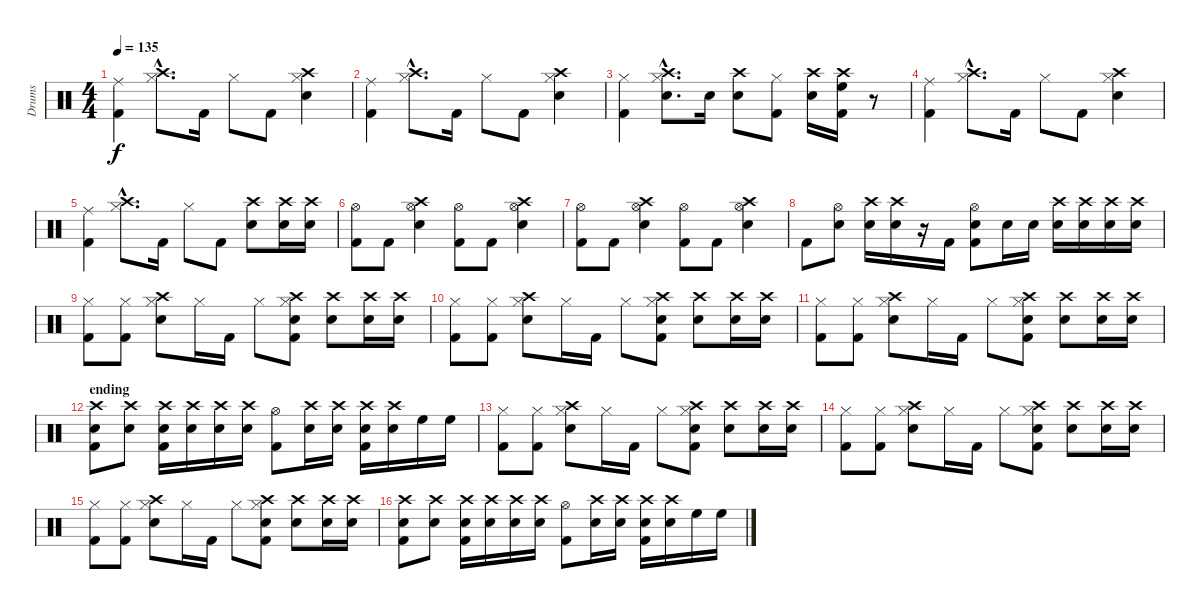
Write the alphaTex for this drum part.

\track ("Drums" "Drums") {instrument percussion}
\staff {score}
\articulation defaults
\ts (4 4)
\tempo 135
\clef neutral
\ks c
("Ride (middle)" "Kick (hit) 2").4{dy f} ("Crash high (hit)"{hac} "Hi-Hat (closed)"{hac}).8{d} "Kick (hit) 2".16 "Hi-Hat (closed)".8 "Kick (hit) 2".8 ("Crash high (hit)" "Hi-Hat (closed)" "Snare (hit) 2").4 |
("Ride (middle)" "Kick (hit) 2").4 ("Crash high (hit)"{hac} "Hi-Hat (closed)"{hac}).8{d} "Kick (hit) 2".16 "Hi-Hat (closed)".8 "Kick (hit) 2".8 ("Crash high (hit)" "Hi-Hat (closed)" "Snare (hit) 2").4 |
("Hi-Hat (closed)" "Kick (hit) 2").4 ("Crash high (hit)"{hac} "Hi-Hat (closed)"{hac} "Snare (hit) 2"{hac}).8{d} "Snare (hit) 2".16 ("Crash high (hit)" "Snare (hit) 2").8 ("Hi-Hat (closed)" "Kick (hit) 2").8 ("Crash high (hit)" "Snare (hit) 2").16 ("Crash high (hit)" "High Floor Tom (hit)" "Kick (hit) 2").16 r.8 |
("Ride (middle)" "Kick (hit) 2").4 ("Crash high (hit)"{hac} "Hi-Hat (closed)"{hac}).8{d} "Kick (hit) 2".16 "Hi-Hat (closed)".8 "Kick (hit) 2".8 ("Crash high (hit)" "Hi-Hat (closed)" "Snare (hit) 2").4 |
("Ride (middle)" "Kick (hit) 2").4 ("Crash high (hit)"{hac} "Hi-Hat (closed)"{hac}).8{d} "Kick (hit) 2".16 "Hi-Hat (closed)".8 "Kick (hit) 2".8 ("Crash high (hit)" "Snare (hit) 2").8 ("Crash high (hit)" "Snare (hit) 2").16 ("Crash high (hit)" "Snare (hit) 2").16 |
("Hi-Hat (open)" "Kick (hit) 2").8 "Kick (hit) 2".8 ("Crash high (hit)" "Hi-Hat (open)" "Snare (hit) 2").4 ("Hi-Hat (open)" "Kick (hit) 2").8 "Kick (hit) 2".8 ("Crash high (hit)" "Hi-Hat (open)" "Snare (hit) 2").4 |
("Hi-Hat (open)" "Kick (hit) 2").8 "Kick (hit) 2".8 ("Crash high (hit)" "Hi-Hat (open)" "Snare (hit) 2").4 ("Hi-Hat (open)" "Kick (hit) 2").8 "Kick (hit) 2".8 ("Crash high (hit)" "Hi-Hat (open)" "Snare (hit) 2").4 |
"Kick (hit) 2".8 ("Hi-Hat (open)" "Snare (hit) 2").8 ("Crash high (hit)" "Snare (hit) 2").16 ("Crash high (hit)" "Snare (hit) 2").16 r.16 "Kick (hit) 2".16 ("Hi-Hat (open)" "Snare (hit) 2" "Kick (hit) 2").8 "Snare (hit) 2".16 "Snare (hit) 2".16 ("Crash high (hit)" "Snare (hit) 2").16 ("Crash high (hit)" "Snare (hit) 2").16 ("Crash high (hit)" "Snare (hit) 2").16 ("Crash high (hit)" "Snare (hit) 2").16 |
("Hi-Hat (closed)" "Kick (hit) 2").8 ("Hi-Hat (closed)" "Kick (hit) 2").8 ("Crash high (hit)" "Hi-Hat (closed)" "Snare (hit) 2").8 "Hi-Hat (closed)".16 "Kick (hit) 2".16 "Hi-Hat (closed)".8 ("Crash high (hit)" "Hi-Hat (closed)" "Snare (hit) 2" "Kick (hit) 2").8 ("Crash high (hit)" "Snare (hit) 2").8 ("Crash high (hit)" "Snare (hit) 2").16 ("Crash high (hit)" "Snare (hit) 2").16 |
("Hi-Hat (closed)" "Kick (hit) 2").8 ("Hi-Hat (closed)" "Kick (hit) 2").8 ("Crash high (hit)" "Hi-Hat (closed)" "Snare (hit) 2").8 "Hi-Hat (closed)".16 "Kick (hit) 2".16 "Hi-Hat (closed)".8 ("Crash high (hit)" "Hi-Hat (closed)" "Snare (hit) 2" "Kick (hit) 2").8 ("Crash high (hit)" "Snare (hit) 2").8 ("Crash high (hit)" "Snare (hit) 2").16 ("Crash high (hit)" "Snare (hit) 2").16 |
("Hi-Hat (closed)" "Kick (hit) 2").8 ("Hi-Hat (closed)" "Kick (hit) 2").8 ("Crash high (hit)" "Hi-Hat (closed)" "Snare (hit) 2").8 "Hi-Hat (closed)".16 "Kick (hit) 2".16 "Hi-Hat (closed)".8 ("Crash high (hit)" "Hi-Hat (closed)" "Snare (hit) 2" "Kick (hit) 2").8 ("Crash high (hit)" "Snare (hit) 2").8 ("Crash high (hit)" "Snare (hit) 2").16 ("Crash high (hit)" "Snare (hit) 2").16 |
\section ("" "ending")
("Crash high (hit)" "Snare (hit) 2" "Kick (hit) 2").8 ("Crash high (hit)" "Snare (hit) 2").8 ("Crash high (hit)" "Snare (hit) 2" "Kick (hit) 2").16 ("Crash high (hit)" "Snare (hit) 2").16 ("Crash high (hit)" "Snare (hit) 2").16 ("Crash high (hit)" "Snare (hit) 2").16 ("Hi-Hat (open)" "Kick (hit) 2").8 ("Crash high (hit)" "Snare (hit) 2").16 ("Crash high (hit)" "Snare (hit) 2").16 ("Crash high (hit)" "Snare (hit) 2" "Kick (hit) 2").16 ("Crash high (hit)" "Snare (hit) 2").16 "High Floor Tom (hit)".16 "High Floor Tom (hit)".16 |
("Hi-Hat (closed)" "Kick (hit) 2").8 ("Hi-Hat (closed)" "Kick (hit) 2").8 ("Crash high (hit)" "Hi-Hat (closed)" "Snare (hit) 2").8 "Hi-Hat (closed)".16 "Kick (hit) 2".16 "Hi-Hat (closed)".8 ("Crash high (hit)" "Hi-Hat (closed)" "Snare (hit) 2" "Kick (hit) 2").8 ("Crash high (hit)" "Snare (hit) 2").8 ("Crash high (hit)" "Snare (hit) 2").16 ("Crash high (hit)" "Snare (hit) 2").16 |
("Hi-Hat (closed)" "Kick (hit) 2").8 ("Hi-Hat (closed)" "Kick (hit) 2").8 ("Crash high (hit)" "Hi-Hat (closed)" "Snare (hit) 2").8 "Hi-Hat (closed)".16 "Kick (hit) 2".16 "Hi-Hat (closed)".8 ("Crash high (hit)" "Hi-Hat (closed)" "Snare (hit) 2" "Kick (hit) 2").8 ("Crash high (hit)" "Snare (hit) 2").8 ("Crash high (hit)" "Snare (hit) 2").16 ("Crash high (hit)" "Snare (hit) 2").16 |
("Hi-Hat (closed)" "Kick (hit) 2").8 ("Hi-Hat (closed)" "Kick (hit) 2").8 ("Crash high (hit)" "Hi-Hat (closed)" "Snare (hit) 2").8 "Hi-Hat (closed)".16 "Kick (hit) 2".16 "Hi-Hat (closed)".8 ("Crash high (hit)" "Hi-Hat (closed)" "Snare (hit) 2" "Kick (hit) 2").8 ("Crash high (hit)" "Snare (hit) 2").8 ("Crash high (hit)" "Snare (hit) 2").16 ("Crash high (hit)" "Snare (hit) 2").16 |
("Crash high (hit)" "Snare (hit) 2" "Kick (hit) 2").8 ("Crash high (hit)" "Snare (hit) 2").8 ("Crash high (hit)" "Snare (hit) 2" "Kick (hit) 2").16 ("Crash high (hit)" "Snare (hit) 2").16 ("Crash high (hit)" "Snare (hit) 2").16 ("Crash high (hit)" "Snare (hit) 2").16 ("Hi-Hat (open)" "Kick (hit) 2").8 ("Crash high (hit)" "Snare (hit) 2").16 ("Crash high (hit)" "Snare (hit) 2").16 ("Crash high (hit)" "Snare (hit) 2" "Kick (hit) 2").16 ("Crash high (hit)" "Snare (hit) 2").16 "High Floor Tom (hit)".16 "High Floor Tom (hit)".16
